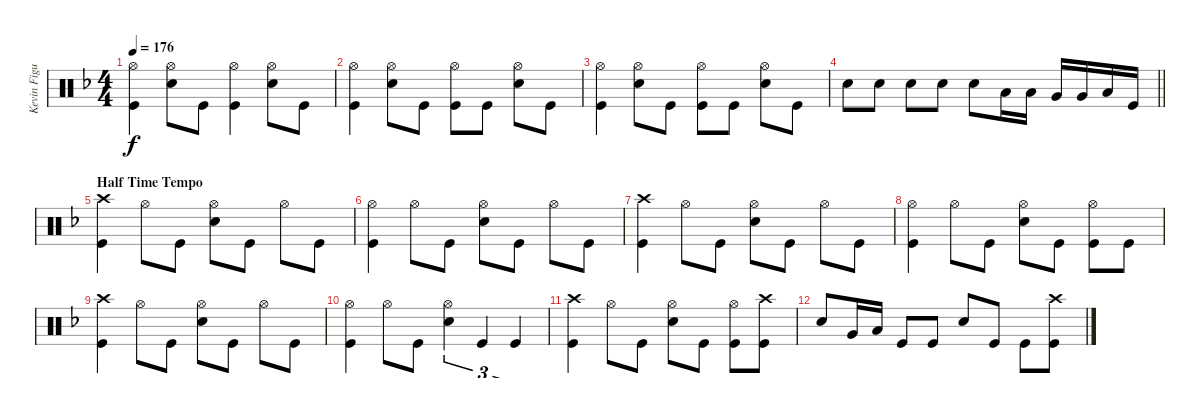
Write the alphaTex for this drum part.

\track ("Kevin Figueiredo - Drums" "Kevin Figu") {instrument percussion}
\staff {score}
\articulation defaults
\ts (4 4)
\tempo 176
\clef neutral
\ks f
("Hi-Hat (open)" "Kick (hit)").4{dy f} ("Hi-Hat (open)" "Snare (hit) 2").8 "Kick (hit)".8 ("Hi-Hat (open)" "Kick (hit)").4 ("Hi-Hat (open)" "Snare (hit) 2").8 "Kick (hit)".8 |
("Hi-Hat (open)" "Kick (hit)").4 ("Hi-Hat (open)" "Snare (hit) 2").8 "Kick (hit)".8 ("Hi-Hat (open)" "Kick (hit)").8 "Kick (hit)".8 ("Hi-Hat (open)" "Snare (hit) 2").8 "Kick (hit)".8 |
("Hi-Hat (open)" "Kick (hit)").4 ("Hi-Hat (open)" "Snare (hit) 2").8 "Kick (hit)".8 ("Hi-Hat (open)" "Kick (hit)").8 "Kick (hit)".8 ("Hi-Hat (open)" "Snare (hit) 2").8 "Kick (hit)".8 |
\barLineRight lightlight "Snare (hit) 2".8 "Snare (hit) 2".8 "Snare (hit) 2".8 "Snare (hit) 2".8 "Snare (hit) 2".8 "Low Tom (hit)".16 "Low Tom (hit)".16 "Very Low Tom (hit)".16 "Very Low Tom (hit)".16 "Low Floor Tom (hit)".16 "Kick (hit)".16
|
\section ("" "Half Time Tempo")
("Crash high (hit)" "Kick (hit)").4 "Hi-Hat (open)".8 "Kick (hit)".8 ("Hi-Hat (open)" "Snare (hit) 2").8 "Kick (hit)".8 "Hi-Hat (open)".8 "Kick (hit)".8 |
("Hi-Hat (open)" "Kick (hit)").4 "Hi-Hat (open)".8 "Kick (hit)".8 ("Hi-Hat (open)" "Snare (hit) 2").8 "Kick (hit)".8 "Hi-Hat (open)".8 "Kick (hit)".8 |
("Crash high (hit)" "Kick (hit)").4 "Hi-Hat (open)".8 "Kick (hit)".8 ("Hi-Hat (open)" "Snare (hit) 2").8 "Kick (hit)".8 "Hi-Hat (open)".8 "Kick (hit)".8 |
("Hi-Hat (open)" "Kick (hit)").4 "Hi-Hat (open)".8 "Kick (hit)".8 ("Hi-Hat (open)" "Snare (hit) 2").8 "Kick (hit)".8 ("Hi-Hat (open)" "Kick (hit)").8 "Kick (hit)".8 |
("Crash high (hit)" "Kick (hit)").4 "Hi-Hat (open)".8 "Kick (hit)".8 ("Hi-Hat (open)" "Snare (hit) 2").8 "Kick (hit)".8 "Hi-Hat (open)".8 "Kick (hit)".8 |
("Hi-Hat (open)" "Kick (hit)").4 "Hi-Hat (open)".8 "Kick (hit)".8 ("Hi-Hat (open)" "Snare (hit) 2").4{tu (3 2)} "Kick (hit)".4{tu (3 2)} "Kick (hit)".4{tu (3 2)} |
("Crash high (hit)" "Kick (hit)").4 "Hi-Hat (open)".8 "Kick (hit)".8 ("Hi-Hat (open)" "Snare (hit) 2").8 "Kick (hit)".8 ("Hi-Hat (open)" "Kick (hit)").8 ("Crash high (hit)" "Kick (hit)").8 |
"Snare (hit) 2".8 "Very Low Tom (hit)".16 "Low Floor Tom (hit)".16 "Kick (hit)".8 "Kick (hit)".8 "Snare (hit) 2".8 "Kick (hit)".8 "Kick (hit)".8 ("Crash high (hit)" "Kick (hit)").8
